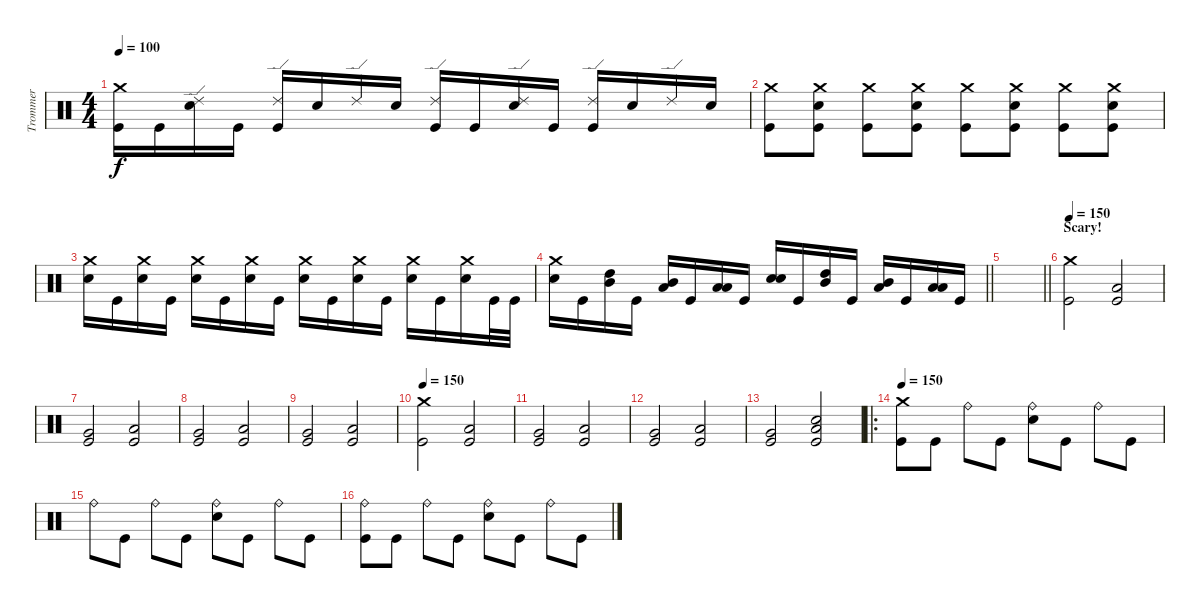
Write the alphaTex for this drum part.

\track ("Trommer" "Trommer") {instrument percussion}
\staff {score}
\articulation defaults
\ts (4 4)
\tempo 100
\clef neutral
\ks c
("Crash medium (hit)" "Kick (hit)").16{dy f} "Kick (hit)".16 ("Ride (edge) 2" "Snare (hit) 2").16 "Kick (hit)".16 ("Ride (edge) 2" "Kick (hit)").16 "Snare (hit) 2".16 "Ride (edge) 2".16 "Snare (hit) 2".16 ("Ride (edge) 2" "Kick (hit)").16 "Kick (hit)".16 ("Ride (edge) 2" "Snare (hit) 2").16 "Kick (hit)".16 ("Ride (edge) 2" "Kick (hit)").16 "Snare (hit) 2".16 "Ride (edge) 2".16 "Snare (hit) 2".16 |
("Crash medium (hit)" "Kick (hit)").8 ("Crash medium (hit)" "Snare (hit) 2" "Kick (hit)").8 ("Crash medium (hit)" "Kick (hit)").8 ("Crash medium (hit)" "Snare (hit) 2" "Kick (hit)").8 ("Crash medium (hit)" "Kick (hit)").8 ("Crash medium (hit)" "Snare (hit) 2" "Kick (hit)").8 ("Crash medium (hit)" "Kick (hit)").8 ("Crash medium (hit)" "Snare (hit) 2" "Kick (hit)").8 |
("Crash medium (hit)" "Snare (hit) 2").16 "Kick (hit)".16 ("Crash medium (hit)" "Snare (hit) 2").16 "Kick (hit)".16 ("Crash medium (hit)" "Snare (hit) 2").16 "Kick (hit)".16 ("Crash medium (hit)" "Snare (hit) 2").16 "Kick (hit)".16 ("Crash medium (hit)" "Snare (hit) 2").16 "Kick (hit)".16 ("Crash medium (hit)" "Snare (hit) 2").16 "Kick (hit)".16 ("Crash medium (hit)" "Snare (hit) 2").16 "Kick (hit)".16 ("Crash medium (hit)" "Snare (hit) 2").16 "Kick (hit)".32 "Kick (hit)".32 |
\barLineRight lightlight
("Crash medium (hit)" "Snare (hit) 2").16 "Kick (hit)".16 ("High Tom (hit)" "Mid Tom (hit)").16 "Kick (hit)".16 ("Mid Tom (hit)" "Low Floor Tom (hit)").16 "Kick (hit)".16 ("Low Floor Tom (hit)" "Low Floor Tom (hit)").16 "Kick (hit)".16 ("Snare (hit) 2" "Snare (hit) 2").16 "Kick (hit)".16 ("High Tom (hit)" "Mid Tom (hit)").16 "Kick (hit)".16 ("Mid Tom (hit)" "Low Floor Tom (hit)").16 "Kick (hit)".16 ("Low Floor Tom (hit)" "Low Floor Tom (hit)").16 "Kick (hit)".16 |
\barLineRight lightlight
|
\section ("" "Scary!")
\tempo 150
("Crash medium (hit)" "Kick (hit)").2 ("Low Floor Tom (hit)" "Kick (hit)").2 |
("Very Low Tom (hit)" "Kick (hit)").2 ("Low Floor Tom (hit)" "Kick (hit)").2 |
("Very Low Tom (hit)" "Kick (hit)").2 ("Low Floor Tom (hit)" "Kick (hit)").2 |
("Very Low Tom (hit)" "Kick (hit)").2 ("Low Floor Tom (hit)" "Kick (hit)").2 |
\tempo 150
("Crash medium (hit)" "Kick (hit)").2 ("Low Floor Tom (hit)" "Kick (hit)").2 |
("Very Low Tom (hit)" "Kick (hit)").2 ("Low Floor Tom (hit)" "Kick (hit)").2 |
("Very Low Tom (hit)" "Kick (hit)").2 ("Low Floor Tom (hit)" "Kick (hit)").2 |
("Very Low Tom (hit)" "Kick (hit)").2 ("Snare (hit) 2" "Low Floor Tom (hit)" "Kick (hit)").2 |
\ro
\tempo 150
("Crash medium (hit)" "Kick (hit)").8 "Kick (hit)".8 "Ride (bell)".8 "Kick (hit)".8 ("Ride (bell)" "Snare (hit) 2").8 "Kick (hit)".8 "Ride (bell)".8 "Kick (hit)".8 |
"Ride (bell)".8 "Kick (hit)".8 "Ride (bell)".8 "Kick (hit)".8 ("Ride (bell)" "Snare (hit) 2").8 "Kick (hit)".8 "Ride (bell)".8 "Kick (hit)".8 |
("Ride (bell)" "Kick (hit)").8 "Kick (hit)".8 "Ride (bell)".8 "Kick (hit)".8 ("Ride (bell)" "Snare (hit) 2").8 "Kick (hit)".8 "Ride (bell)".8 "Kick (hit)".8
